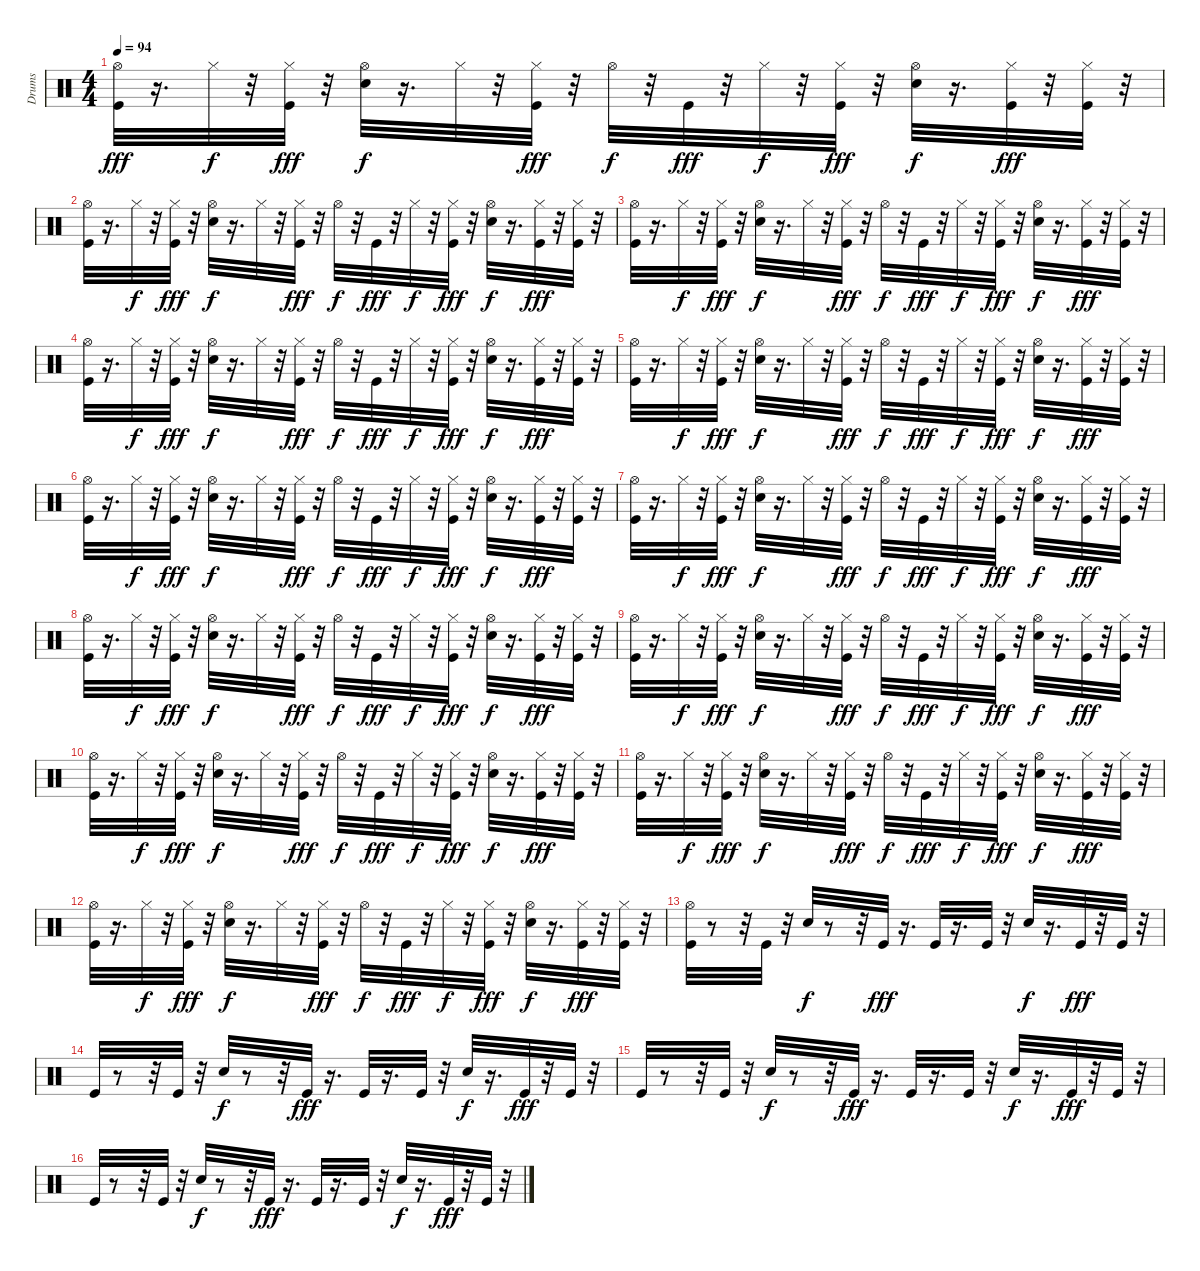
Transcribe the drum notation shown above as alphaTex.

\track ("Drums" "Drums") {instrument percussion}
\staff {score}
\articulation defaults
\ts (4 4)
\tempo 94
\clef neutral
\ks c
("Kick (hit)" "Hi-Hat (open)").32{dy fff} r.16{d} "Hi-Hat (closed)".32{dy f} r.32 ("Kick (hit)" "Hi-Hat (closed)").32{dy fff} r.32 ("Snare (hit) 2" "Hi-Hat (open)").32{dy f} r.16{d} "Hi-Hat (closed)".32 r.32 ("Kick (hit)" "Hi-Hat (closed)").32{dy fff} r.32 "Hi-Hat (open)".32{dy f} r.32 "Kick (hit)".32{dy fff} r.32 "Hi-Hat (closed)".32{dy f} r.32 ("Kick (hit)" "Hi-Hat (closed)").32{dy fff} r.32 ("Snare (hit) 2" "Hi-Hat (open)").32{dy f} r.16{d} ("Kick (hit)" "Hi-Hat (closed)").32{dy fff} r.32 ("Kick (hit)" "Hi-Hat (closed)").32 r.32 |
("Kick (hit)" "Hi-Hat (open)").32 r.16{d} "Hi-Hat (closed)".32{dy f} r.32 ("Kick (hit)" "Hi-Hat (closed)").32{dy fff} r.32 ("Snare (hit) 2" "Hi-Hat (open)").32{dy f} r.16{d} "Hi-Hat (closed)".32 r.32 ("Kick (hit)" "Hi-Hat (closed)").32{dy fff} r.32 "Hi-Hat (open)".32{dy f} r.32 "Kick (hit)".32{dy fff} r.32 "Hi-Hat (closed)".32{dy f} r.32 ("Kick (hit)" "Hi-Hat (closed)").32{dy fff} r.32 ("Snare (hit) 2" "Hi-Hat (open)").32{dy f} r.16{d} ("Kick (hit)" "Hi-Hat (closed)").32{dy fff} r.32 ("Kick (hit)" "Hi-Hat (closed)").32 r.32 |
("Kick (hit)" "Hi-Hat (open)").32 r.16{d} "Hi-Hat (closed)".32{dy f} r.32 ("Kick (hit)" "Hi-Hat (closed)").32{dy fff} r.32 ("Snare (hit) 2" "Hi-Hat (open)").32{dy f} r.16{d} "Hi-Hat (closed)".32 r.32 ("Kick (hit)" "Hi-Hat (closed)").32{dy fff} r.32 "Hi-Hat (open)".32{dy f} r.32 "Kick (hit)".32{dy fff} r.32 "Hi-Hat (closed)".32{dy f} r.32 ("Kick (hit)" "Hi-Hat (closed)").32{dy fff} r.32 ("Snare (hit) 2" "Hi-Hat (open)").32{dy f} r.16{d} ("Kick (hit)" "Hi-Hat (closed)").32{dy fff} r.32 ("Kick (hit)" "Hi-Hat (closed)").32 r.32 |
("Kick (hit)" "Hi-Hat (open)").32 r.16{d} "Hi-Hat (closed)".32{dy f} r.32 ("Kick (hit)" "Hi-Hat (closed)").32{dy fff} r.32 ("Snare (hit) 2" "Hi-Hat (open)").32{dy f} r.16{d} "Hi-Hat (closed)".32 r.32 ("Kick (hit)" "Hi-Hat (closed)").32{dy fff} r.32 "Hi-Hat (open)".32{dy f} r.32 "Kick (hit)".32{dy fff} r.32 "Hi-Hat (closed)".32{dy f} r.32 ("Kick (hit)" "Hi-Hat (closed)").32{dy fff} r.32 ("Snare (hit) 2" "Hi-Hat (open)").32{dy f} r.16{d} ("Kick (hit)" "Hi-Hat (closed)").32{dy fff} r.32 ("Kick (hit)" "Hi-Hat (closed)").32 r.32 |
("Kick (hit)" "Hi-Hat (open)").32 r.16{d} "Hi-Hat (closed)".32{dy f} r.32 ("Kick (hit)" "Hi-Hat (closed)").32{dy fff} r.32 ("Snare (hit) 2" "Hi-Hat (open)").32{dy f} r.16{d} "Hi-Hat (closed)".32 r.32 ("Kick (hit)" "Hi-Hat (closed)").32{dy fff} r.32 "Hi-Hat (open)".32{dy f} r.32 "Kick (hit)".32{dy fff} r.32 "Hi-Hat (closed)".32{dy f} r.32 ("Kick (hit)" "Hi-Hat (closed)").32{dy fff} r.32 ("Snare (hit) 2" "Hi-Hat (open)").32{dy f} r.16{d} ("Kick (hit)" "Hi-Hat (closed)").32{dy fff} r.32 ("Kick (hit)" "Hi-Hat (closed)").32 r.32 |
("Kick (hit)" "Hi-Hat (open)").32 r.16{d} "Hi-Hat (closed)".32{dy f} r.32 ("Kick (hit)" "Hi-Hat (closed)").32{dy fff} r.32 ("Snare (hit) 2" "Hi-Hat (open)").32{dy f} r.16{d} "Hi-Hat (closed)".32 r.32 ("Kick (hit)" "Hi-Hat (closed)").32{dy fff} r.32 "Hi-Hat (open)".32{dy f} r.32 "Kick (hit)".32{dy fff} r.32 "Hi-Hat (closed)".32{dy f} r.32 ("Kick (hit)" "Hi-Hat (closed)").32{dy fff} r.32 ("Snare (hit) 2" "Hi-Hat (open)").32{dy f} r.16{d} ("Kick (hit)" "Hi-Hat (closed)").32{dy fff} r.32 ("Kick (hit)" "Hi-Hat (closed)").32 r.32 |
("Kick (hit)" "Hi-Hat (open)").32 r.16{d} "Hi-Hat (closed)".32{dy f} r.32 ("Kick (hit)" "Hi-Hat (closed)").32{dy fff} r.32 ("Snare (hit) 2" "Hi-Hat (open)").32{dy f} r.16{d} "Hi-Hat (closed)".32 r.32 ("Kick (hit)" "Hi-Hat (closed)").32{dy fff} r.32 "Hi-Hat (open)".32{dy f} r.32 "Kick (hit)".32{dy fff} r.32 "Hi-Hat (closed)".32{dy f} r.32 ("Kick (hit)" "Hi-Hat (closed)").32{dy fff} r.32 ("Snare (hit) 2" "Hi-Hat (open)").32{dy f} r.16{d} ("Kick (hit)" "Hi-Hat (closed)").32{dy fff} r.32 ("Kick (hit)" "Hi-Hat (closed)").32 r.32 |
("Kick (hit)" "Hi-Hat (open)").32 r.16{d} "Hi-Hat (closed)".32{dy f} r.32 ("Kick (hit)" "Hi-Hat (closed)").32{dy fff} r.32 ("Snare (hit) 2" "Hi-Hat (open)").32{dy f} r.16{d} "Hi-Hat (closed)".32 r.32 ("Kick (hit)" "Hi-Hat (closed)").32{dy fff} r.32 "Hi-Hat (open)".32{dy f} r.32 "Kick (hit)".32{dy fff} r.32 "Hi-Hat (closed)".32{dy f} r.32 ("Kick (hit)" "Hi-Hat (closed)").32{dy fff} r.32 ("Snare (hit) 2" "Hi-Hat (open)").32{dy f} r.16{d} ("Kick (hit)" "Hi-Hat (closed)").32{dy fff} r.32 ("Kick (hit)" "Hi-Hat (closed)").32 r.32 |
("Kick (hit)" "Hi-Hat (open)").32 r.16{d} "Hi-Hat (closed)".32{dy f} r.32 ("Kick (hit)" "Hi-Hat (closed)").32{dy fff} r.32 ("Snare (hit) 2" "Hi-Hat (open)").32{dy f} r.16{d} "Hi-Hat (closed)".32 r.32 ("Kick (hit)" "Hi-Hat (closed)").32{dy fff} r.32 "Hi-Hat (open)".32{dy f} r.32 "Kick (hit)".32{dy fff} r.32 "Hi-Hat (closed)".32{dy f} r.32 ("Kick (hit)" "Hi-Hat (closed)").32{dy fff} r.32 ("Snare (hit) 2" "Hi-Hat (open)").32{dy f} r.16{d} ("Kick (hit)" "Hi-Hat (closed)").32{dy fff} r.32 ("Kick (hit)" "Hi-Hat (closed)").32 r.32 |
("Kick (hit)" "Hi-Hat (open)").32 r.16{d} "Hi-Hat (closed)".32{dy f} r.32 ("Kick (hit)" "Hi-Hat (closed)").32{dy fff} r.32 ("Snare (hit) 2" "Hi-Hat (open)").32{dy f} r.16{d} "Hi-Hat (closed)".32 r.32 ("Kick (hit)" "Hi-Hat (closed)").32{dy fff} r.32 "Hi-Hat (open)".32{dy f} r.32 "Kick (hit)".32{dy fff} r.32 "Hi-Hat (closed)".32{dy f} r.32 ("Kick (hit)" "Hi-Hat (closed)").32{dy fff} r.32 ("Snare (hit) 2" "Hi-Hat (open)").32{dy f} r.16{d} ("Kick (hit)" "Hi-Hat (closed)").32{dy fff} r.32 ("Kick (hit)" "Hi-Hat (closed)").32 r.32 |
("Kick (hit)" "Hi-Hat (open)").32 r.16{d} "Hi-Hat (closed)".32{dy f} r.32 ("Kick (hit)" "Hi-Hat (closed)").32{dy fff} r.32 ("Snare (hit) 2" "Hi-Hat (open)").32{dy f} r.16{d} "Hi-Hat (closed)".32 r.32 ("Kick (hit)" "Hi-Hat (closed)").32{dy fff} r.32 "Hi-Hat (open)".32{dy f} r.32 "Kick (hit)".32{dy fff} r.32 "Hi-Hat (closed)".32{dy f} r.32 ("Kick (hit)" "Hi-Hat (closed)").32{dy fff} r.32 ("Snare (hit) 2" "Hi-Hat (open)").32{dy f} r.16{d} ("Kick (hit)" "Hi-Hat (closed)").32{dy fff} r.32 ("Kick (hit)" "Hi-Hat (closed)").32 r.32 |
("Kick (hit)" "Hi-Hat (open)").32 r.16{d} "Hi-Hat (closed)".32{dy f} r.32 ("Kick (hit)" "Hi-Hat (closed)").32{dy fff} r.32 ("Snare (hit) 2" "Hi-Hat (open)").32{dy f} r.16{d} "Hi-Hat (closed)".32 r.32 ("Kick (hit)" "Hi-Hat (closed)").32{dy fff} r.32 "Hi-Hat (open)".32{dy f} r.32 "Kick (hit)".32{dy fff} r.32 "Hi-Hat (closed)".32{dy f} r.32 ("Kick (hit)" "Hi-Hat (closed)").32{dy fff} r.32 ("Snare (hit) 2" "Hi-Hat (open)").32{dy f} r.16{d} ("Kick (hit)" "Hi-Hat (closed)").32{dy fff} r.32 ("Kick (hit)" "Hi-Hat (closed)").32 r.32 |
("Kick (hit)" "Hi-Hat (open)").32 r.8 r.32 "Kick (hit)".32 r.32 "Snare (hit) 2".32{dy f} r.8 r.32 "Kick (hit)".32{dy fff} r.16{d} "Kick (hit)".32 r.16{d} "Kick (hit)".32 r.32 "Snare (hit) 2".32{dy f} r.16{d} "Kick (hit)".32{dy fff} r.32 "Kick (hit)".32 r.32 |
"Kick (hit)".32 r.8 r.32 "Kick (hit)".32 r.32 "Snare (hit) 2".32{dy f} r.8 r.32 "Kick (hit)".32{dy fff} r.16{d} "Kick (hit)".32 r.16{d} "Kick (hit)".32 r.32 "Snare (hit) 2".32{dy f} r.16{d} "Kick (hit)".32{dy fff} r.32 "Kick (hit)".32 r.32 |
"Kick (hit)".32 r.8 r.32 "Kick (hit)".32 r.32 "Snare (hit) 2".32{dy f} r.8 r.32 "Kick (hit)".32{dy fff} r.16{d} "Kick (hit)".32 r.16{d} "Kick (hit)".32 r.32 "Snare (hit) 2".32{dy f} r.16{d} "Kick (hit)".32{dy fff} r.32 "Kick (hit)".32 r.32 |
"Kick (hit)".32 r.8 r.32 "Kick (hit)".32 r.32 "Snare (hit) 2".32{dy f} r.8 r.32 "Kick (hit)".32{dy fff} r.16{d} "Kick (hit)".32 r.16{d} "Kick (hit)".32 r.32 "Snare (hit) 2".32{dy f} r.16{d} "Kick (hit)".32{dy fff} r.32 "Kick (hit)".32 r.32
